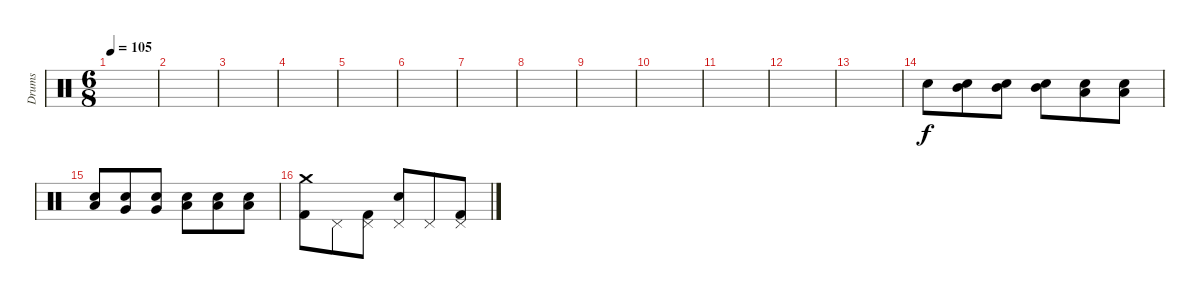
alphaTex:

\track ("Drums" "Drums") {instrument percussion}
\staff {score}
\articulation defaults
\ts (6 8)
\tempo 105
\clef neutral
\ks c
|
|
|
|
|
|
|
|
|
|
|
|
|
"Snare (hit) 2".8 ("Mid Tom (hit)" "Snare (hit) 2").8{volume 8} ("Mid Tom (hit)" "Snare (hit) 2").8{volume 13} ("Mid Tom (hit)" "Snare (hit) 2").8 ("Low Tom (hit)" "Snare (hit) 2").8 ("Low Tom (hit)" "Snare (hit) 2").8 |
("Low Tom (hit)" "Snare (hit) 2").8 ("Very Low Tom (hit)" "Snare (hit) 2").8 ("Very Low Tom (hit)" "Snare (hit) 2").8 ("Low Floor Tom (hit)" "Snare (hit) 2").8 ("Low Floor Tom (hit)" "Snare (hit) 2").8 ("Low Floor Tom (hit)" "Snare (hit) 2").8 |
("Crash medium (hit)" "Kick (hit) 2").8 "Pedal Hi-Hat (hit)".8 ("Pedal Hi-Hat (hit)" "Kick (hit) 2").8 ("Pedal Hi-Hat (hit)" "Snare (hit) 2").8 "Pedal Hi-Hat (hit)".8 ("Pedal Hi-Hat (hit)" "Kick (hit) 2").8
